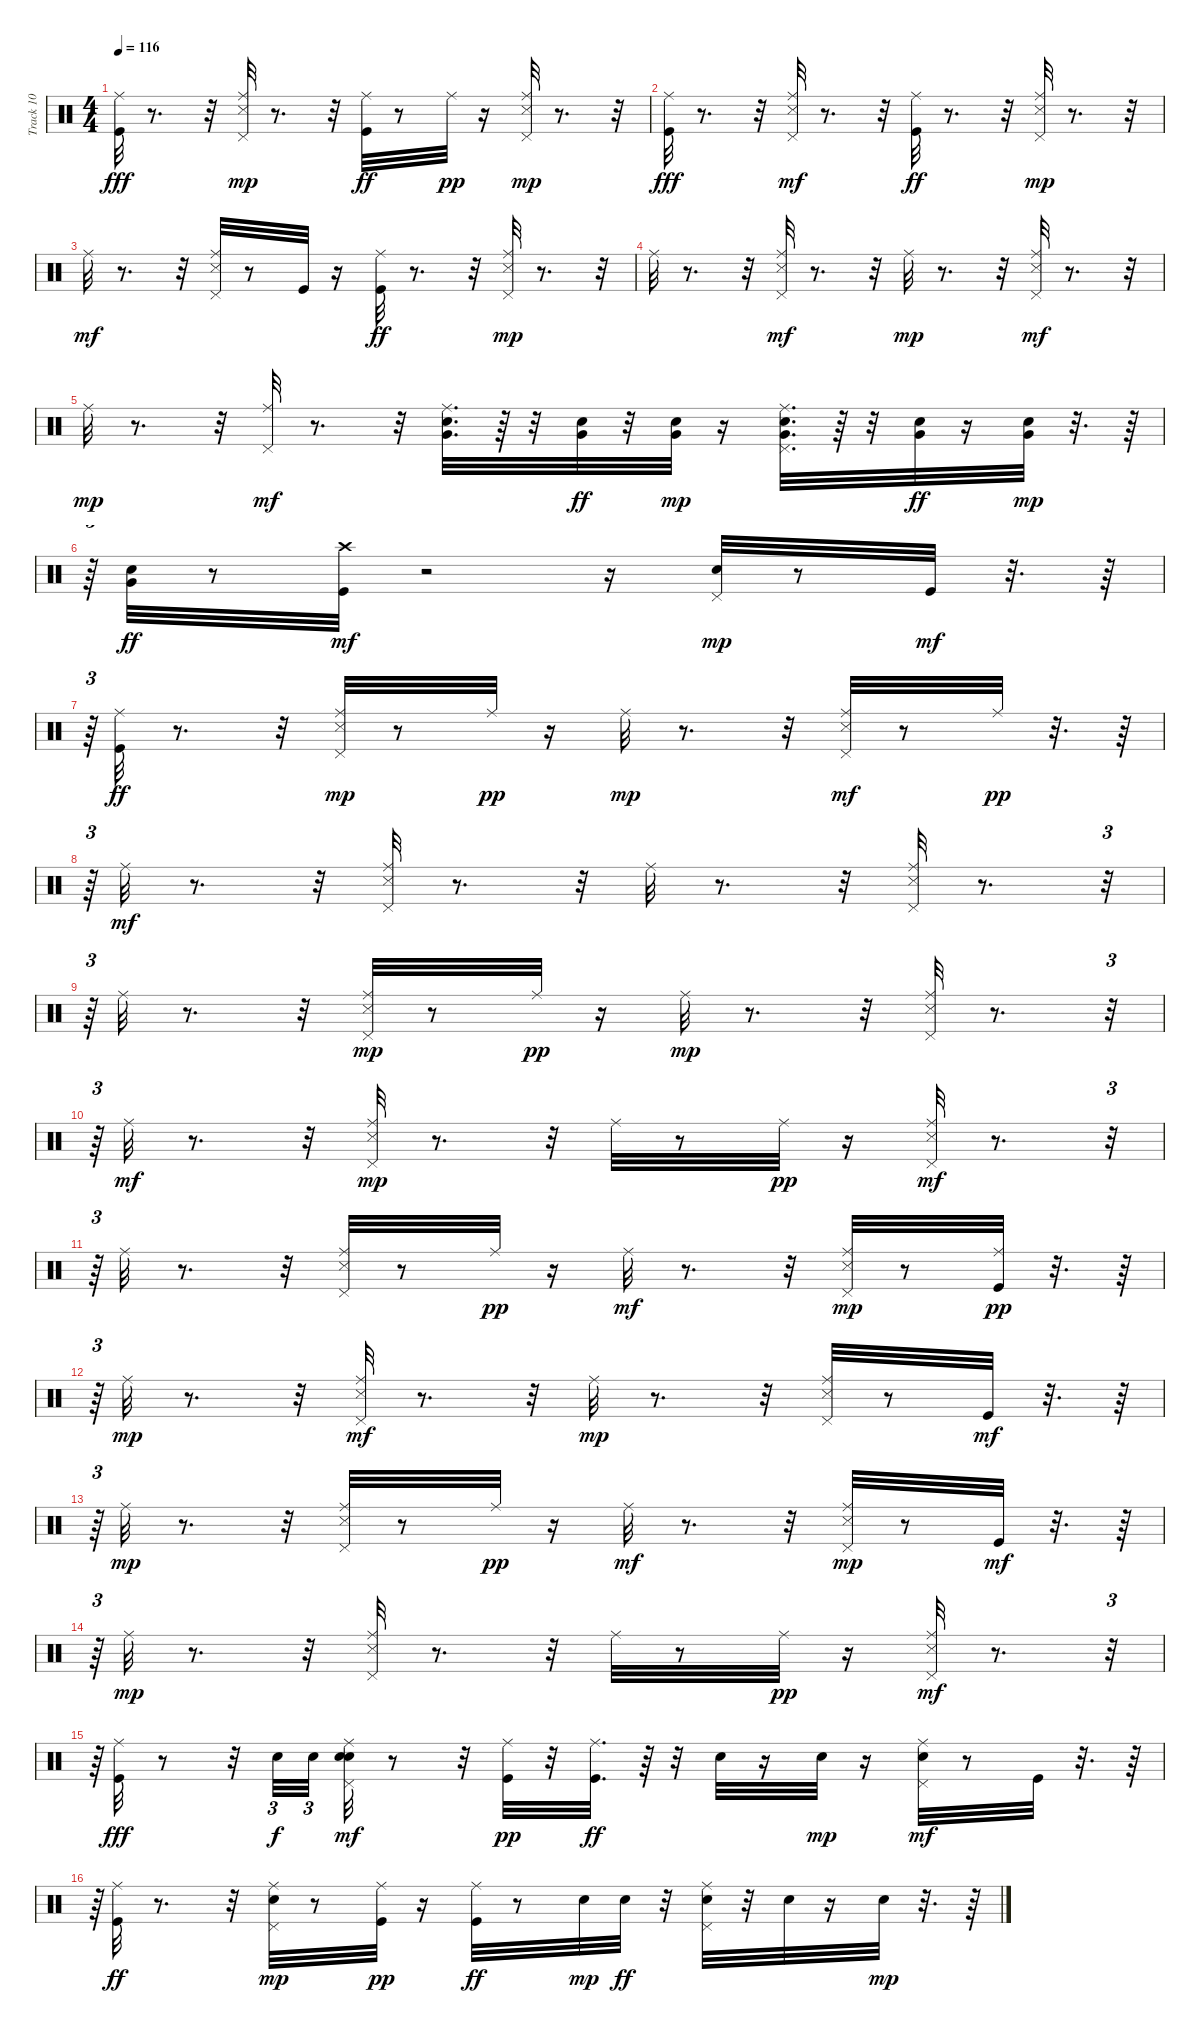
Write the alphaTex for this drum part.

\track ("Track 10" "Track 10") {instrument percussion}
\staff {score}
\articulation defaults
\ts (4 4)
\tempo 116
\clef neutral
\ks c
("Ride (middle)" "Kick (hit)").32{dy fff} r.8{d} r.32 ("Snare (side stick) 3" "Ride (middle)" "Pedal Hi-Hat (hit)").32{dy mp} r.8{d} r.32 ("Ride (middle)" "Kick (hit)").32{dy ff} r.8 "Ride (middle)".32{dy pp} r.16 ("Snare (side stick) 3" "Ride (middle)" "Pedal Hi-Hat (hit)").32{dy mp} r.8{d} r.32 |
("Ride (middle)" "Kick (hit)").32{dy fff} r.8{d} r.32 ("Snare (side stick) 3" "Ride (middle)" "Pedal Hi-Hat (hit)").32{dy mf} r.8{d} r.32 ("Ride (middle)" "Kick (hit)").32{dy ff} r.8{d} r.32 ("Snare (side stick) 3" "Ride (middle)" "Pedal Hi-Hat (hit)").32{dy mp} r.8{d} r.32 |
"Ride (middle)".32{dy mf} r.8{d} r.32 ("Snare (side stick) 3" "Ride (middle)" "Pedal Hi-Hat (hit)").32 r.8 "Kick (hit)".32 r.16 ("Ride (middle)" "Kick (hit)").32{dy ff} r.8{d} r.32 ("Snare (side stick) 3" "Ride (middle)" "Pedal Hi-Hat (hit)").32{dy mp} r.8{d} r.32 |
"Ride (middle)".32 r.8{d} r.32 ("Snare (side stick) 3" "Ride (middle)" "Pedal Hi-Hat (hit)").32{dy mf} r.8{d} r.32 "Ride (middle)".32{dy mp} r.8{d} r.32 ("Snare (side stick) 3" "Ride (middle)" "Pedal Hi-Hat (hit)").32{dy mf} r.8{d} r.32 |
"Ride (middle)".32{dy mp} r.8{d} r.32 ("Ride (middle)" "Pedal Hi-Hat (hit)").32{dy mf} r.8{d} r.32 ("Electric Snare (hit)" "Ride (middle)" "Very Low Tom (hit)").32{d} r.64 r.32 ("Electric Snare (hit)" "Very Low Tom (hit)").32{dy ff} r.32 ("Very Low Tom (hit)" "Electric Snare (hit)").32{dy mp} r.16 ("Electric Snare (hit)" "Ride (middle)" "Pedal Hi-Hat (hit)" "Very Low Tom (hit)").32{d} r.64 r.32 ("Electric Snare (hit)" "Very Low Tom (hit)").32{dy ff} r.16 ("Very Low Tom (hit)" "Electric Snare (hit)").32{dy mp} r.32{d} r.64 |
r.64{tu (3 2)} ("Electric Snare (hit)" "Very Low Tom (hit)").32{dy ff} r.8 ("Kick (hit)" "Crash high (hit)").32{dy mf} r.2 r.16 ("Electric Snare (hit)" "Pedal Hi-Hat (hit)").32{dy mp} r.8 "Kick (hit)".32{dy mf} r.32{d} r.64 |
r.64{tu (3 2)} ("Ride (middle)" "Kick (hit)").32{dy ff} r.8{d} r.32 ("Snare (side stick) 3" "Ride (middle)" "Pedal Hi-Hat (hit)").32{dy mp} r.8 "Ride (middle)".32{dy pp} r.16 "Ride (middle)".32{dy mp} r.8{d} r.32 ("Snare (side stick) 3" "Ride (middle)" "Pedal Hi-Hat (hit)").32{dy mf} r.8 "Ride (middle)".32{dy pp} r.32{d} r.64 |
r.64{tu (3 2)} "Ride (middle)".32{dy mf} r.8{d} r.32 ("Snare (side stick) 3" "Ride (middle)" "Pedal Hi-Hat (hit)").32 r.8{d} r.32 "Ride (middle)".32 r.8{d} r.32 ("Snare (side stick) 3" "Ride (middle)" "Pedal Hi-Hat (hit)").32 r.8{d} r.32{tu (3 2)} |
r.64{tu (3 2)} "Ride (middle)".32 r.8{d} r.32 ("Snare (side stick) 3" "Ride (middle)" "Pedal Hi-Hat (hit)").32{dy mp} r.8 "Ride (middle)".32{dy pp} r.16 "Ride (middle)".32{dy mp} r.8{d} r.32 ("Snare (side stick) 3" "Ride (middle)" "Pedal Hi-Hat (hit)").32 r.8{d} r.32{tu (3 2)} |
r.64{tu (3 2)} "Ride (middle)".32{dy mf} r.8{d} r.32 ("Snare (side stick) 3" "Ride (middle)" "Pedal Hi-Hat (hit)").32{dy mp} r.8{d} r.32 "Ride (middle)".32 r.8 "Ride (middle)".32{dy pp} r.16 ("Snare (side stick) 3" "Ride (middle)" "Pedal Hi-Hat (hit)").32{dy mf} r.8{d} r.32{tu (3 2)} |
r.64{tu (3 2)} "Ride (middle)".32 r.8{d} r.32 ("Snare (side stick) 3" "Ride (middle)" "Pedal Hi-Hat (hit)").32 r.8 "Ride (middle)".32{dy pp} r.16 "Ride (middle)".32{dy mf} r.8{d} r.32 ("Snare (side stick) 3" "Ride (middle)" "Pedal Hi-Hat (hit)").32{dy mp} r.8 ("Kick (hit)" "Ride (middle)").32{dy pp} r.32{d} r.64 |
r.64{tu (3 2)} "Ride (middle)".32{dy mp} r.8{d} r.32 ("Snare (side stick) 3" "Ride (middle)" "Pedal Hi-Hat (hit)").32{dy mf} r.8{d} r.32 "Ride (middle)".32{dy mp} r.8{d} r.32 ("Snare (side stick) 3" "Ride (middle)" "Pedal Hi-Hat (hit)").32 r.8 "Kick (hit)".32{dy mf} r.32{d} r.64 |
r.64{tu (3 2)} "Ride (middle)".32{dy mp} r.8{d} r.32 ("Snare (side stick) 3" "Ride (middle)" "Pedal Hi-Hat (hit)").32 r.8 "Ride (middle)".32{dy pp} r.16 "Ride (middle)".32{dy mf} r.8{d} r.32 ("Snare (side stick) 3" "Ride (middle)" "Pedal Hi-Hat (hit)").32{dy mp} r.8 "Kick (hit)".32{dy mf} r.32{d} r.64 |
r.64{tu (3 2)} "Ride (middle)".32{dy mp} r.8{d} r.32 ("Snare (side stick) 3" "Ride (middle)" "Pedal Hi-Hat (hit)").32 r.8{d} r.32 "Ride (middle)".32 r.8 "Ride (middle)".32{dy pp} r.16 ("Snare (side stick) 3" "Ride (middle)" "Pedal Hi-Hat (hit)").32{dy mf} r.8{d} r.32{tu (3 2)} |
r.64{tu (3 2)} ("Ride (middle)" "Kick (hit)").32{dy fff} r.8 r.32 "Electric Snare (hit)".32{tu (3 2) dy f} "Electric Snare (hit)".32{tu (3 2) beam splitsecondary} ("Electric Snare (hit)" "Pedal Hi-Hat (hit)" "Ride (middle)" "Electric Snare (hit)").32{dy mf} r.8 r.32 ("Kick (hit)" "Ride (middle)").32{dy pp} r.32 ("Ride (middle)" "Kick (hit)").32{d dy ff} r.64 r.32 "Electric Snare (hit)".32 r.16 "Electric Snare (hit)".32{dy mp} r.16 ("Ride (middle)" "Electric Snare (hit)" "Pedal Hi-Hat (hit)").32{dy mf} r.8 "Kick (hit)".32 r.32{d} r.64 |
r.64{tu (3 2)} ("Ride (middle)" "Kick (hit)").32{dy ff} r.8{d} r.32 ("Electric Snare (hit)" "Ride (middle)" "Pedal Hi-Hat (hit)").32{dy mp} r.8 ("Kick (hit)" "Ride (middle)").32{dy pp} r.16 ("Ride (middle)" "Kick (hit)").32{dy ff} r.8 "Electric Snare (hit)".32{dy mp} "Electric Snare (hit)".32{dy ff} r.32 ("Pedal Hi-Hat (hit)" "Ride (middle)" "Electric Snare (hit)").32 r.32 "Electric Snare (hit)".32 r.16 "Electric Snare (hit)".32{dy mp} r.32{d} r.64
